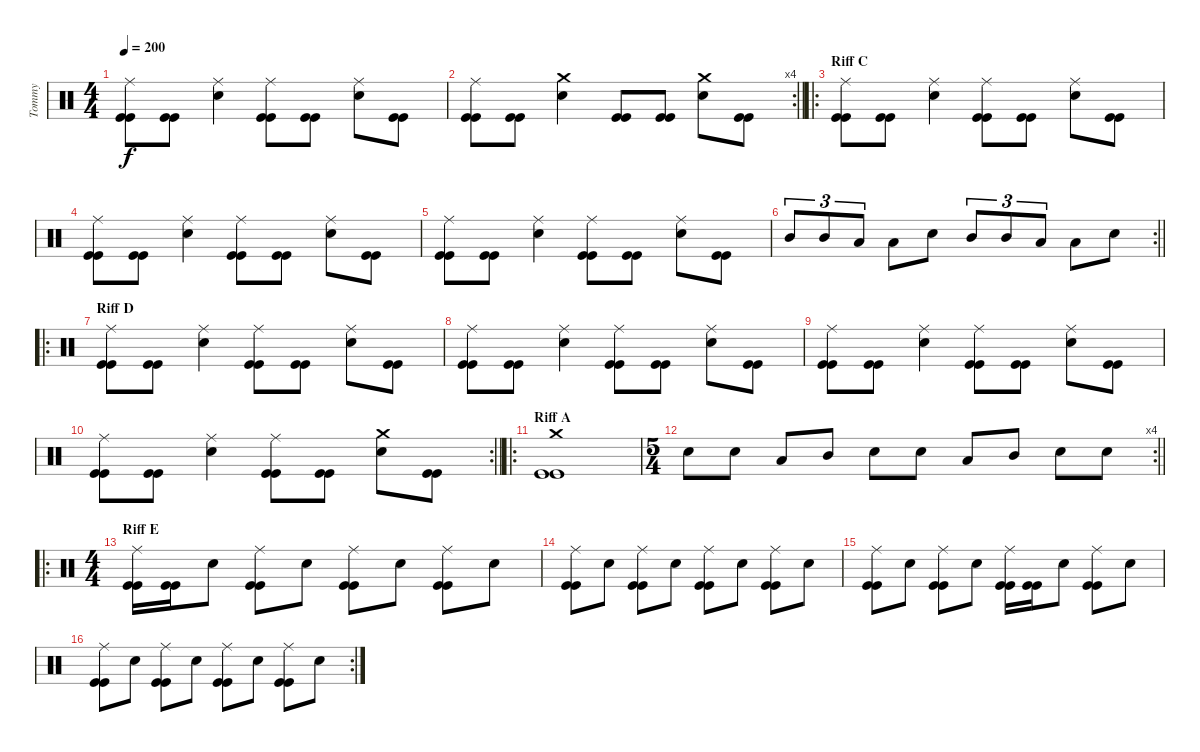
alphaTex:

\track ("Tommy" "Tommy") {instrument percussion}
\staff {score}
\articulation defaults
\ts (4 4)
\tempo 200
\clef neutral
\ks c
("Ride (middle)" "Kick (hit)" "Kick (hit)").8{dy f} ("Kick (hit)" "Kick (hit)").8 ("Ride (middle)" "Snare (hit) 2").4 ("Ride (middle)" "Kick (hit)" "Kick (hit)").8 ("Kick (hit)" "Kick (hit)").8 ("Ride (middle)" "Snare (hit) 2").8 ("Kick (hit)" "Kick (hit)").8 |
\rc 4
\barLineRight lightlight
("Ride (middle)" "Kick (hit)" "Kick (hit)").8 ("Kick (hit)" "Kick (hit)").8 ("Crash medium (hit)" "Snare (hit) 2").4 ("Kick (hit)" "Kick (hit)").8 ("Kick (hit)" "Kick (hit)").8 ("Crash medium (hit)" "Snare (hit) 2").8 ("Kick (hit)" "Kick (hit)").8 |
\ro
\section ("" "Riff C")
("Ride (middle)" "Kick (hit)" "Kick (hit)").8 ("Kick (hit)" "Kick (hit)").8 ("Ride (middle)" "Snare (hit) 2").4 ("Ride (middle)" "Kick (hit)" "Kick (hit)").8 ("Kick (hit)" "Kick (hit)").8 ("Ride (middle)" "Snare (hit) 2").8 ("Kick (hit)" "Kick (hit)").8 |
("Ride (middle)" "Kick (hit)" "Kick (hit)").8 ("Kick (hit)" "Kick (hit)").8 ("Ride (middle)" "Snare (hit) 2").4 ("Ride (middle)" "Kick (hit)" "Kick (hit)").8 ("Kick (hit)" "Kick (hit)").8 ("Ride (middle)" "Snare (hit) 2").8 ("Kick (hit)" "Kick (hit)").8 |
("Ride (middle)" "Kick (hit)" "Kick (hit)").8 ("Kick (hit)" "Kick (hit)").8 ("Ride (middle)" "Snare (hit) 2").4 ("Ride (middle)" "Kick (hit)" "Kick (hit)").8 ("Kick (hit)" "Kick (hit)").8 ("Ride (middle)" "Snare (hit) 2").8 ("Kick (hit)" "Kick (hit)").8 |
\rc 2
\barLineRight lightlight "Mid Tom (hit)".8{tu (3 2)} "Mid Tom (hit)".8{tu (3 2)} "Low Tom (hit)".8{tu (3 2)} "Low Tom (hit)".8 "Snare (hit) 2".8 "Mid Tom (hit)".8{tu (3 2)} "Mid Tom (hit)".8{tu (3 2)} "Low Tom (hit)".8{tu (3 2)} "Low Tom (hit)".8 "Snare (hit) 2".8
|
\ro
\section ("" "Riff D")
("Ride (middle)" "Kick (hit)" "Kick (hit)").8 ("Kick (hit)" "Kick (hit)").8 ("Ride (middle)" "Snare (hit) 2").4 ("Ride (middle)" "Kick (hit)" "Kick (hit)").8 ("Kick (hit)" "Kick (hit)").8 ("Ride (middle)" "Snare (hit) 2").8 ("Kick (hit)" "Kick (hit)").8 |
("Ride (middle)" "Kick (hit)" "Kick (hit)").8 ("Kick (hit)" "Kick (hit)").8 ("Ride (middle)" "Snare (hit) 2").4 ("Ride (middle)" "Kick (hit)" "Kick (hit)").8 ("Kick (hit)" "Kick (hit)").8 ("Ride (middle)" "Snare (hit) 2").8 ("Kick (hit)" "Kick (hit)").8 |
("Ride (middle)" "Kick (hit)" "Kick (hit)").8 ("Kick (hit)" "Kick (hit)").8 ("Ride (middle)" "Snare (hit) 2").4 ("Ride (middle)" "Kick (hit)" "Kick (hit)").8 ("Kick (hit)" "Kick (hit)").8 ("Ride (middle)" "Snare (hit) 2").8 ("Kick (hit)" "Kick (hit)").8 |
\rc 2
\barLineRight lightlight
("Ride (middle)" "Kick (hit)" "Kick (hit)").8 ("Kick (hit)" "Kick (hit)").8 ("Ride (middle)" "Snare (hit) 2").4 ("Ride (middle)" "Kick (hit)" "Kick (hit)").8 ("Kick (hit)" "Kick (hit)").8 ("Crash medium (hit)" "Snare (hit) 2").8 ("Kick (hit)" "Kick (hit)").8 |
\ro
\section ("" "Riff A")
("Crash medium (hit)" "Kick (hit)" "Kick (hit)").1 |
\rc 4
\ts (5 4)
\barLineRight lightlight "Snare (hit) 2".8 "Snare (hit) 2".8 "Low Tom (hit)".8 "Mid Tom (hit)".8 "Snare (hit) 2".8 "Snare (hit) 2".8 "Low Tom (hit)".8 "Mid Tom (hit)".8 "Snare (hit) 2".8 "Snare (hit) 2".8
|
\ro
\ts (4 4)
\section ("" "Riff E")
("Ride (middle)" "Kick (hit)" "Kick (hit)").16 ("Kick (hit)" "Kick (hit)").16 "Snare (hit) 2".8 ("Ride (middle)" "Kick (hit)" "Kick (hit)").8 "Snare (hit) 2".8 ("Ride (middle)" "Kick (hit)" "Kick (hit)").8 "Snare (hit) 2".8 ("Ride (middle)" "Kick (hit)" "Kick (hit)").8 "Snare (hit) 2".8 |
("Ride (middle)" "Kick (hit)" "Kick (hit)").8 "Snare (hit) 2".8 ("Ride (middle)" "Kick (hit)" "Kick (hit)").8 "Snare (hit) 2".8 ("Ride (middle)" "Kick (hit)" "Kick (hit)").8 "Snare (hit) 2".8 ("Ride (middle)" "Kick (hit)" "Kick (hit)").8 "Snare (hit) 2".8 |
("Ride (middle)" "Kick (hit)" "Kick (hit)").8 "Snare (hit) 2".8 ("Ride (middle)" "Kick (hit)" "Kick (hit)").8 "Snare (hit) 2".8 ("Ride (middle)" "Kick (hit)" "Kick (hit)").16 ("Kick (hit)" "Kick (hit)").16 "Snare (hit) 2".8 ("Ride (middle)" "Kick (hit)" "Kick (hit)").8 "Snare (hit) 2".8 |
\rc 2
("Ride (middle)" "Kick (hit)" "Kick (hit)").8 "Snare (hit) 2".8 ("Ride (middle)" "Kick (hit)" "Kick (hit)").8 "Snare (hit) 2".8 ("Ride (middle)" "Kick (hit)" "Kick (hit)").8 "Snare (hit) 2".8 ("Ride (middle)" "Kick (hit)" "Kick (hit)").8 "Snare (hit) 2".8
